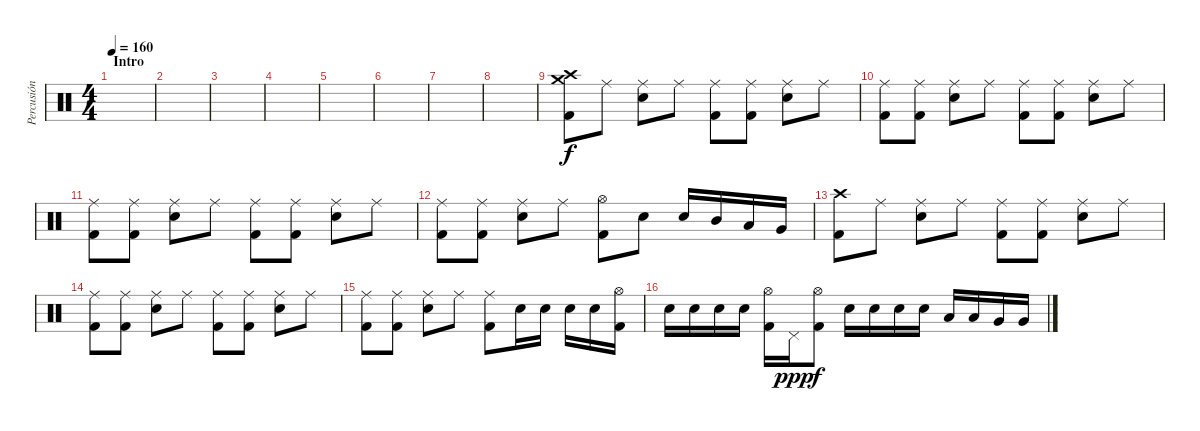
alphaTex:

\track ("Percusión" "Percusión") {instrument percussion}
\staff {score}
\articulation defaults
\ts (4 4)
\section ("" "Intro")
\tempo 160
\clef neutral
\ks c
|
|
|
|
|
|
|
|
("Crash medium (hit)" "Crash high (hit)" "Kick (hit) 2").8 "Ride (middle)".8 ("Ride (middle)" "Electric Snare (hit)").8 "Ride (middle)".8 ("Ride (middle)" "Kick (hit) 2").8 ("Ride (middle)" "Kick (hit) 2").8 ("Ride (middle)" "Electric Snare (hit)").8 "Ride (middle)".8 |
("Ride (middle)" "Kick (hit) 2").8 ("Ride (middle)" "Kick (hit) 2").8 ("Ride (middle)" "Electric Snare (hit)").8 "Ride (middle)".8 ("Ride (middle)" "Kick (hit) 2").8 ("Ride (middle)" "Kick (hit) 2").8 ("Ride (middle)" "Electric Snare (hit)").8 "Ride (middle)".8 |
("Ride (middle)" "Kick (hit) 2").8 ("Ride (middle)" "Kick (hit) 2").8 ("Ride (middle)" "Electric Snare (hit)").8 "Ride (middle)".8 ("Ride (middle)" "Kick (hit) 2").8 ("Ride (middle)" "Kick (hit) 2").8 ("Ride (middle)" "Electric Snare (hit)").8 "Ride (middle)".8 |
("Ride (middle)" "Kick (hit) 2").8 ("Ride (middle)" "Kick (hit) 2").8 ("Ride (middle)" "Electric Snare (hit)").8 "Ride (middle)".8 ("Hi-Hat (open)" "Kick (hit) 2").8 "Electric Snare (hit)".8 "Electric Snare (hit)".16 "Mid Tom (hit)".16 "Low Tom (hit)".16 "Very Low Tom (hit)".16 |
("Crash high (hit)" "Kick (hit) 2").8 "Ride (middle)".8 ("Ride (middle)" "Electric Snare (hit)").8 "Ride (middle)".8 ("Ride (middle)" "Kick (hit) 2").8 ("Ride (middle)" "Kick (hit) 2").8 ("Ride (middle)" "Electric Snare (hit)").8 "Ride (middle)".8 |
("Ride (middle)" "Kick (hit) 2").8 ("Ride (middle)" "Kick (hit) 2").8 ("Ride (middle)" "Electric Snare (hit)").8 "Ride (middle)".8 ("Ride (middle)" "Kick (hit) 2").8 ("Ride (middle)" "Kick (hit) 2").8 ("Ride (middle)" "Electric Snare (hit)").8 "Ride (middle)".8 |
("Ride (middle)" "Kick (hit) 2").8 ("Ride (middle)" "Kick (hit) 2").8 ("Ride (middle)" "Electric Snare (hit)").8 "Ride (middle)".8 ("Ride (middle)" "Kick (hit) 2").8 "Electric Snare (hit)".16 "Electric Snare (hit)".16 "Electric Snare (hit)".16 "Electric Snare (hit)".16 ("Hi-Hat (open)" "Kick (hit) 2").16 |
"Electric Snare (hit)".16 "Electric Snare (hit)".16 "Electric Snare (hit)".16 "Electric Snare (hit)".16 ("Hi-Hat (open)" "Kick (hit) 2").16 "Pedal Hi-Hat (hit)".16{dy ppp} ("Hi-Hat (open)" "Kick (hit) 2").8{dy f} "Electric Snare (hit)".16 "Electric Snare (hit)".16 "Electric Snare (hit)".16 "Electric Snare (hit)".16 "Low Tom (hit)".16 "Low Tom (hit)".16 "Very Low Tom (hit)".16 "Very Low Tom (hit)".16
